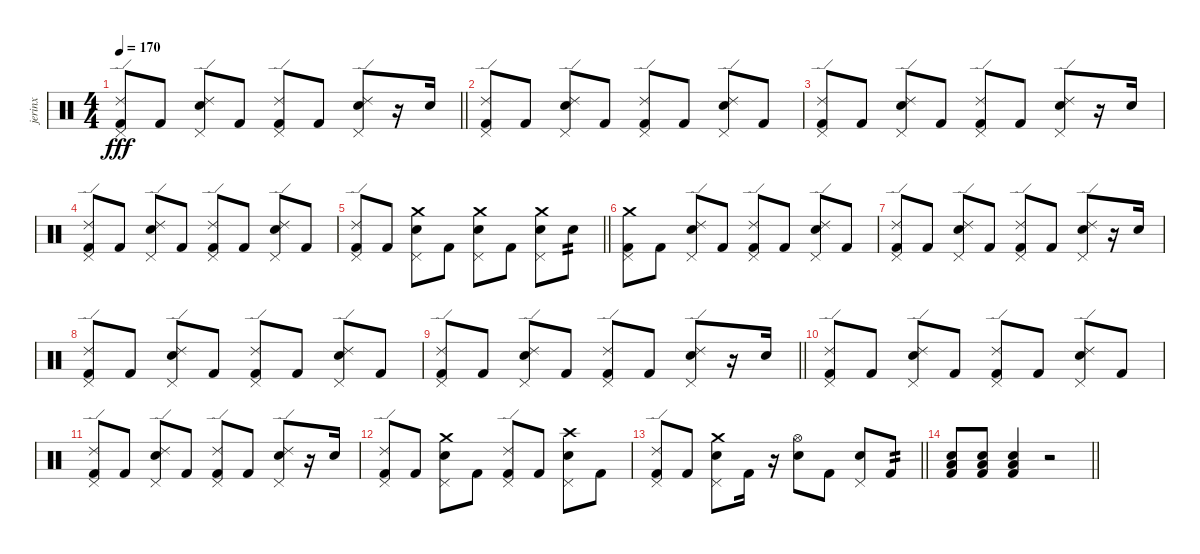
\track ("jerinx" "jerinx") {instrument percussion}
\staff {score}
\articulation defaults
\ts (4 4)
\tempo 170
\clef neutral
\barLineRight lightlight
\ks c
("Pedal Hi-Hat (hit)" "Kick (hit) 2" "Ride (edge) 2").8{dy fff} "Kick (hit) 2".8 ("Pedal Hi-Hat (hit)" "Snare (hit) 2" "Ride (edge) 2").8 "Kick (hit) 2".8 ("Pedal Hi-Hat (hit)" "Kick (hit) 2" "Ride (edge) 2").8 "Kick (hit) 2".8 ("Pedal Hi-Hat (hit)" "Snare (hit) 2" "Ride (edge) 2").8 r.16 "Snare (hit) 2".16 |
("Pedal Hi-Hat (hit)" "Kick (hit) 2" "Ride (edge) 2").8 "Kick (hit) 2".8 ("Pedal Hi-Hat (hit)" "Snare (hit) 2" "Ride (edge) 2").8 "Kick (hit) 2".8 ("Pedal Hi-Hat (hit)" "Kick (hit) 2" "Ride (edge) 2").8 "Kick (hit) 2".8 ("Pedal Hi-Hat (hit)" "Snare (hit) 2" "Ride (edge) 2").8 "Kick (hit) 2".8 |
("Pedal Hi-Hat (hit)" "Kick (hit) 2" "Ride (edge) 2").8 "Kick (hit) 2".8 ("Pedal Hi-Hat (hit)" "Snare (hit) 2" "Ride (edge) 2").8 "Kick (hit) 2".8 ("Pedal Hi-Hat (hit)" "Kick (hit) 2" "Ride (edge) 2").8 "Kick (hit) 2".8 ("Pedal Hi-Hat (hit)" "Snare (hit) 2" "Ride (edge) 2").8 r.16 "Snare (hit) 2".16 |
("Pedal Hi-Hat (hit)" "Kick (hit) 2" "Ride (edge) 2").8 "Kick (hit) 2".8 ("Pedal Hi-Hat (hit)" "Snare (hit) 2" "Ride (edge) 2").8 "Kick (hit) 2".8 ("Pedal Hi-Hat (hit)" "Kick (hit) 2" "Ride (edge) 2").8 "Kick (hit) 2".8 ("Pedal Hi-Hat (hit)" "Snare (hit) 2" "Ride (edge) 2").8 "Kick (hit) 2".8 |
\barLineRight lightlight
("Pedal Hi-Hat (hit)" "Kick (hit) 2" "Ride (edge) 2").8 "Kick (hit) 2".8 ("Pedal Hi-Hat (hit)" "Snare (hit) 2" "Crash medium (hit)").8 "Kick (hit) 2".8 ("Pedal Hi-Hat (hit)" "Snare (hit) 2" "Crash medium (hit)").8 "Kick (hit) 2".8 ("Pedal Hi-Hat (hit)" "Snare (hit) 2" "Crash medium (hit)").8 "Snare (hit) 2".8{tp 2} |
("Pedal Hi-Hat (hit)" "Kick (hit) 2" "Crash medium (hit)").8 "Kick (hit) 2".8 ("Pedal Hi-Hat (hit)" "Snare (hit) 2" "Ride (edge) 2").8 "Kick (hit) 2".8 ("Pedal Hi-Hat (hit)" "Kick (hit) 2" "Ride (edge) 2").8 "Kick (hit) 2".8 ("Pedal Hi-Hat (hit)" "Snare (hit) 2" "Ride (edge) 2").8 "Kick (hit) 2".8 |
("Pedal Hi-Hat (hit)" "Kick (hit) 2" "Ride (edge) 2").8 "Kick (hit) 2".8 ("Pedal Hi-Hat (hit)" "Snare (hit) 2" "Ride (edge) 2").8 "Kick (hit) 2".8 ("Pedal Hi-Hat (hit)" "Kick (hit) 2" "Ride (edge) 2").8 "Kick (hit) 2".8 ("Pedal Hi-Hat (hit)" "Snare (hit) 2" "Ride (edge) 2").8 r.16 "Snare (hit) 2".16 |
("Pedal Hi-Hat (hit)" "Kick (hit) 2" "Ride (edge) 2").8 "Kick (hit) 2".8 ("Pedal Hi-Hat (hit)" "Snare (hit) 2" "Ride (edge) 2").8 "Kick (hit) 2".8 ("Pedal Hi-Hat (hit)" "Kick (hit) 2" "Ride (edge) 2").8 "Kick (hit) 2".8 ("Pedal Hi-Hat (hit)" "Snare (hit) 2" "Ride (edge) 2").8 "Kick (hit) 2".8 |
\barLineRight lightlight
("Pedal Hi-Hat (hit)" "Kick (hit) 2" "Ride (edge) 2").8 "Kick (hit) 2".8 ("Pedal Hi-Hat (hit)" "Snare (hit) 2" "Ride (edge) 2").8 "Kick (hit) 2".8 ("Pedal Hi-Hat (hit)" "Kick (hit) 2" "Ride (edge) 2").8 "Kick (hit) 2".8 ("Pedal Hi-Hat (hit)" "Snare (hit) 2" "Ride (edge) 2").8 r.16 "Snare (hit) 2".16 |
("Pedal Hi-Hat (hit)" "Kick (hit) 2" "Ride (edge) 2").8 "Kick (hit) 2".8 ("Pedal Hi-Hat (hit)" "Snare (hit) 2" "Ride (edge) 2").8 "Kick (hit) 2".8 ("Pedal Hi-Hat (hit)" "Kick (hit) 2" "Ride (edge) 2").8 "Kick (hit) 2".8 ("Pedal Hi-Hat (hit)" "Snare (hit) 2" "Ride (edge) 2").8 "Kick (hit) 2".8 |
("Pedal Hi-Hat (hit)" "Kick (hit) 2" "Ride (edge) 2").8 "Kick (hit) 2".8 ("Pedal Hi-Hat (hit)" "Snare (hit) 2" "Ride (edge) 2").8 "Kick (hit) 2".8 ("Pedal Hi-Hat (hit)" "Kick (hit) 2" "Ride (edge) 2").8 "Kick (hit) 2".8 ("Pedal Hi-Hat (hit)" "Snare (hit) 2" "Ride (edge) 2").8 r.16 "Snare (hit) 2".16 |
("Pedal Hi-Hat (hit)" "Kick (hit) 2" "Ride (edge) 2").8 "Kick (hit) 2".8 ("Pedal Hi-Hat (hit)" "Snare (hit) 2" "Crash medium (hit)").8 "Kick (hit) 2".8 ("Pedal Hi-Hat (hit)" "Kick (hit) 2" "Ride (edge) 2").8 "Kick (hit) 2".8 ("Pedal Hi-Hat (hit)" "Snare (hit) 2" "Crash high (hit)").8 "Kick (hit) 2".8 |
\barLineRight lightlight
("Pedal Hi-Hat (hit)" "Kick (hit) 2" "Ride (edge) 2").8 "Kick (hit) 2".8 ("Pedal Hi-Hat (hit)" "Snare (hit) 2" "Crash medium (hit)").8 "Kick (hit) 2".16 r.16 ("Hi-Hat (open)" "Snare (hit) 2").8 "Kick (hit) 2".8 ("Pedal Hi-Hat (hit)" "Snare (hit) 2").8 "Kick (hit) 2".8{tp 2} |
\barLineRight lightlight
("Snare (hit) 2" "Kick (hit) 2" "Low Floor Tom (hit)").8 ("Snare (hit) 2" "Kick (hit) 2" "Low Floor Tom (hit)").8 ("Snare (hit) 2" "Kick (hit) 2" "Low Floor Tom (hit)").4 r.2
